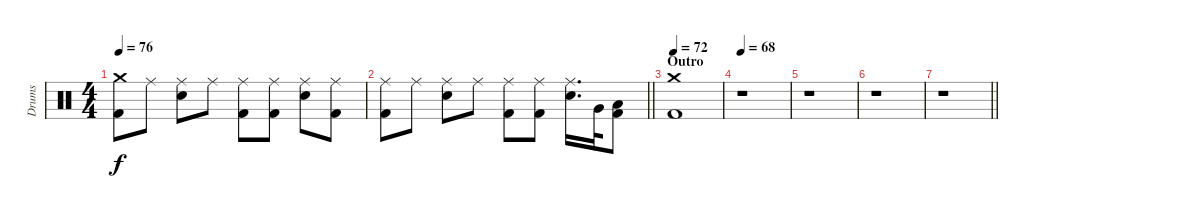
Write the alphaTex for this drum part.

\track ("Drums" "Drums") {instrument percussion}
\staff {score}
\articulation defaults
\ts (4 4)
\tempo 76
\clef neutral
\ks aminor
("Crash medium (hit)" "Kick (hit) 2").8{dy f} "Ride (middle)".8 ("Ride (middle)" "Electric Snare (hit)").8 "Ride (middle)".8 ("Ride (middle)" "Kick (hit) 2").8 ("Ride (middle)" "Kick (hit) 2").8 ("Ride (middle)" "Electric Snare (hit)").8 ("Ride (middle)" "Kick (hit) 2").8 |
\barLineRight lightlight
("Ride (middle)" "Kick (hit) 2").8 "Ride (middle)".8 ("Ride (middle)" "Electric Snare (hit)").8 "Ride (middle)".8 ("Ride (middle)" "Kick (hit) 2").8 ("Ride (middle)" "Kick (hit) 2").8 ("Ride (middle)" "Electric Snare (hit)").16{d} "Very Low Tom (hit)".32 ("Low Floor Tom (hit)" "Kick (hit) 2").8 |
\section ("" "Outro")
\tempo 72
("Crash medium (hit)" "Kick (hit) 2").1 |
\tempo 68
r.1 |
r.1 |
r.1 |
\barLineRight lightlight
r.1
